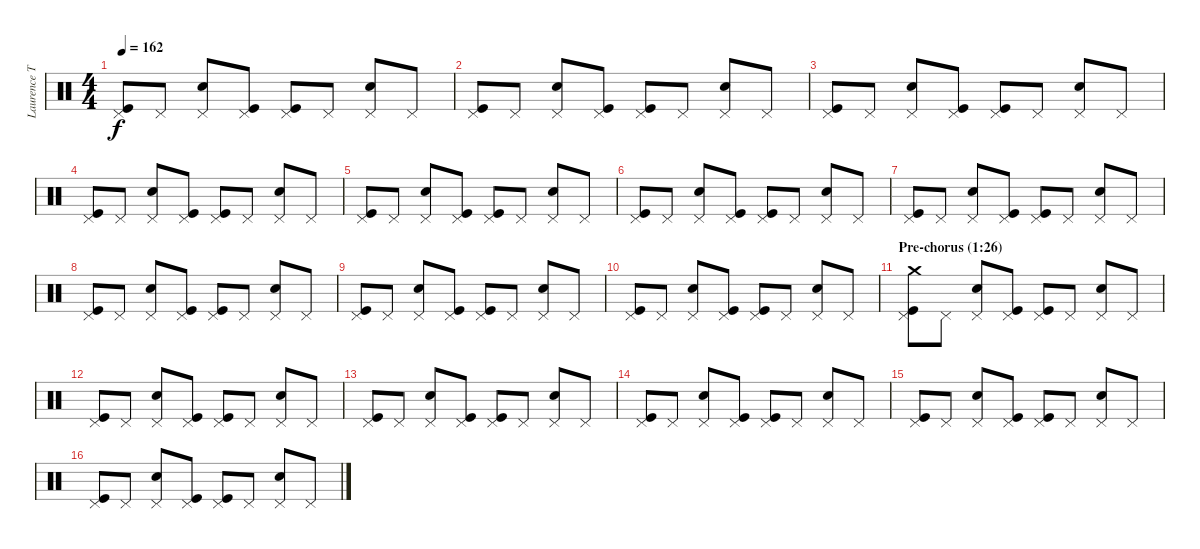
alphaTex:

\track ("Laurence Tolhurst (drums)" "Laurence T") {instrument percussion}
\staff {score}
\articulation defaults
\ts (4 4)
\tempo 162
\clef neutral
\ks c
("Pedal Hi-Hat (hit)" "Kick (hit)").8{dy f} "Pedal Hi-Hat (hit)".8 ("Pedal Hi-Hat (hit)" "Snare (hit) 2").8 ("Pedal Hi-Hat (hit)" "Kick (hit)").8 ("Pedal Hi-Hat (hit)" "Kick (hit)").8 "Pedal Hi-Hat (hit)".8 ("Pedal Hi-Hat (hit)" "Snare (hit) 2").8 "Pedal Hi-Hat (hit)".8 |
("Pedal Hi-Hat (hit)" "Kick (hit)").8 "Pedal Hi-Hat (hit)".8 ("Pedal Hi-Hat (hit)" "Snare (hit) 2").8 ("Pedal Hi-Hat (hit)" "Kick (hit)").8 ("Pedal Hi-Hat (hit)" "Kick (hit)").8 "Pedal Hi-Hat (hit)".8 ("Pedal Hi-Hat (hit)" "Snare (hit) 2").8 "Pedal Hi-Hat (hit)".8 |
("Pedal Hi-Hat (hit)" "Kick (hit)").8 "Pedal Hi-Hat (hit)".8 ("Pedal Hi-Hat (hit)" "Snare (hit) 2").8 ("Pedal Hi-Hat (hit)" "Kick (hit)").8 ("Pedal Hi-Hat (hit)" "Kick (hit)").8 "Pedal Hi-Hat (hit)".8 ("Pedal Hi-Hat (hit)" "Snare (hit) 2").8 "Pedal Hi-Hat (hit)".8 |
("Pedal Hi-Hat (hit)" "Kick (hit)").8 "Pedal Hi-Hat (hit)".8 ("Pedal Hi-Hat (hit)" "Snare (hit) 2").8 ("Pedal Hi-Hat (hit)" "Kick (hit)").8 ("Pedal Hi-Hat (hit)" "Kick (hit)").8 "Pedal Hi-Hat (hit)".8 ("Pedal Hi-Hat (hit)" "Snare (hit) 2").8 "Pedal Hi-Hat (hit)".8 |
("Pedal Hi-Hat (hit)" "Kick (hit)").8 "Pedal Hi-Hat (hit)".8 ("Pedal Hi-Hat (hit)" "Snare (hit) 2").8 ("Pedal Hi-Hat (hit)" "Kick (hit)").8 ("Pedal Hi-Hat (hit)" "Kick (hit)").8 "Pedal Hi-Hat (hit)".8 ("Pedal Hi-Hat (hit)" "Snare (hit) 2").8 "Pedal Hi-Hat (hit)".8 |
("Pedal Hi-Hat (hit)" "Kick (hit)").8 "Pedal Hi-Hat (hit)".8 ("Pedal Hi-Hat (hit)" "Snare (hit) 2").8 ("Pedal Hi-Hat (hit)" "Kick (hit)").8 ("Pedal Hi-Hat (hit)" "Kick (hit)").8 "Pedal Hi-Hat (hit)".8 ("Pedal Hi-Hat (hit)" "Snare (hit) 2").8 "Pedal Hi-Hat (hit)".8 |
("Pedal Hi-Hat (hit)" "Kick (hit)").8 "Pedal Hi-Hat (hit)".8 ("Pedal Hi-Hat (hit)" "Snare (hit) 2").8 ("Pedal Hi-Hat (hit)" "Kick (hit)").8 ("Pedal Hi-Hat (hit)" "Kick (hit)").8 "Pedal Hi-Hat (hit)".8 ("Pedal Hi-Hat (hit)" "Snare (hit) 2").8 "Pedal Hi-Hat (hit)".8 |
("Pedal Hi-Hat (hit)" "Kick (hit)").8 "Pedal Hi-Hat (hit)".8 ("Pedal Hi-Hat (hit)" "Snare (hit) 2").8 ("Pedal Hi-Hat (hit)" "Kick (hit)").8 ("Pedal Hi-Hat (hit)" "Kick (hit)").8 "Pedal Hi-Hat (hit)".8 ("Pedal Hi-Hat (hit)" "Snare (hit) 2").8 "Pedal Hi-Hat (hit)".8 |
("Pedal Hi-Hat (hit)" "Kick (hit)").8 "Pedal Hi-Hat (hit)".8 ("Pedal Hi-Hat (hit)" "Snare (hit) 2").8 ("Pedal Hi-Hat (hit)" "Kick (hit)").8 ("Pedal Hi-Hat (hit)" "Kick (hit)").8 "Pedal Hi-Hat (hit)".8 ("Pedal Hi-Hat (hit)" "Snare (hit) 2").8 "Pedal Hi-Hat (hit)".8 |
("Pedal Hi-Hat (hit)" "Kick (hit)").8 "Pedal Hi-Hat (hit)".8 ("Pedal Hi-Hat (hit)" "Snare (hit) 2").8 ("Pedal Hi-Hat (hit)" "Kick (hit)").8 ("Pedal Hi-Hat (hit)" "Kick (hit)").8 "Pedal Hi-Hat (hit)".8 ("Pedal Hi-Hat (hit)" "Snare (hit) 2").8 "Pedal Hi-Hat (hit)".8 |
\section ("" "Pre-chorus (1:26)")
("Crash medium (hit)" "Pedal Hi-Hat (hit)" "Kick (hit)").8 "Pedal Hi-Hat (hit)".8 ("Pedal Hi-Hat (hit)" "Snare (hit) 2").8 ("Pedal Hi-Hat (hit)" "Kick (hit)").8 ("Pedal Hi-Hat (hit)" "Kick (hit)").8 "Pedal Hi-Hat (hit)".8 ("Pedal Hi-Hat (hit)" "Snare (hit) 2").8 "Pedal Hi-Hat (hit)".8 |
("Pedal Hi-Hat (hit)" "Kick (hit)").8 "Pedal Hi-Hat (hit)".8 ("Pedal Hi-Hat (hit)" "Snare (hit) 2").8 ("Pedal Hi-Hat (hit)" "Kick (hit)").8 ("Pedal Hi-Hat (hit)" "Kick (hit)").8 "Pedal Hi-Hat (hit)".8 ("Pedal Hi-Hat (hit)" "Snare (hit) 2").8 "Pedal Hi-Hat (hit)".8 |
("Pedal Hi-Hat (hit)" "Kick (hit)").8 "Pedal Hi-Hat (hit)".8 ("Pedal Hi-Hat (hit)" "Snare (hit) 2").8 ("Pedal Hi-Hat (hit)" "Kick (hit)").8 ("Pedal Hi-Hat (hit)" "Kick (hit)").8 "Pedal Hi-Hat (hit)".8 ("Pedal Hi-Hat (hit)" "Snare (hit) 2").8 "Pedal Hi-Hat (hit)".8 |
("Pedal Hi-Hat (hit)" "Kick (hit)").8 "Pedal Hi-Hat (hit)".8 ("Pedal Hi-Hat (hit)" "Snare (hit) 2").8 ("Pedal Hi-Hat (hit)" "Kick (hit)").8 ("Pedal Hi-Hat (hit)" "Kick (hit)").8 "Pedal Hi-Hat (hit)".8 ("Pedal Hi-Hat (hit)" "Snare (hit) 2").8 "Pedal Hi-Hat (hit)".8 |
("Pedal Hi-Hat (hit)" "Kick (hit)").8 "Pedal Hi-Hat (hit)".8 ("Pedal Hi-Hat (hit)" "Snare (hit) 2").8 ("Pedal Hi-Hat (hit)" "Kick (hit)").8 ("Pedal Hi-Hat (hit)" "Kick (hit)").8 "Pedal Hi-Hat (hit)".8 ("Pedal Hi-Hat (hit)" "Snare (hit) 2").8 "Pedal Hi-Hat (hit)".8 |
("Pedal Hi-Hat (hit)" "Kick (hit)").8 "Pedal Hi-Hat (hit)".8 ("Pedal Hi-Hat (hit)" "Snare (hit) 2").8 ("Pedal Hi-Hat (hit)" "Kick (hit)").8 ("Pedal Hi-Hat (hit)" "Kick (hit)").8 "Pedal Hi-Hat (hit)".8 ("Pedal Hi-Hat (hit)" "Snare (hit) 2").8 "Pedal Hi-Hat (hit)".8
